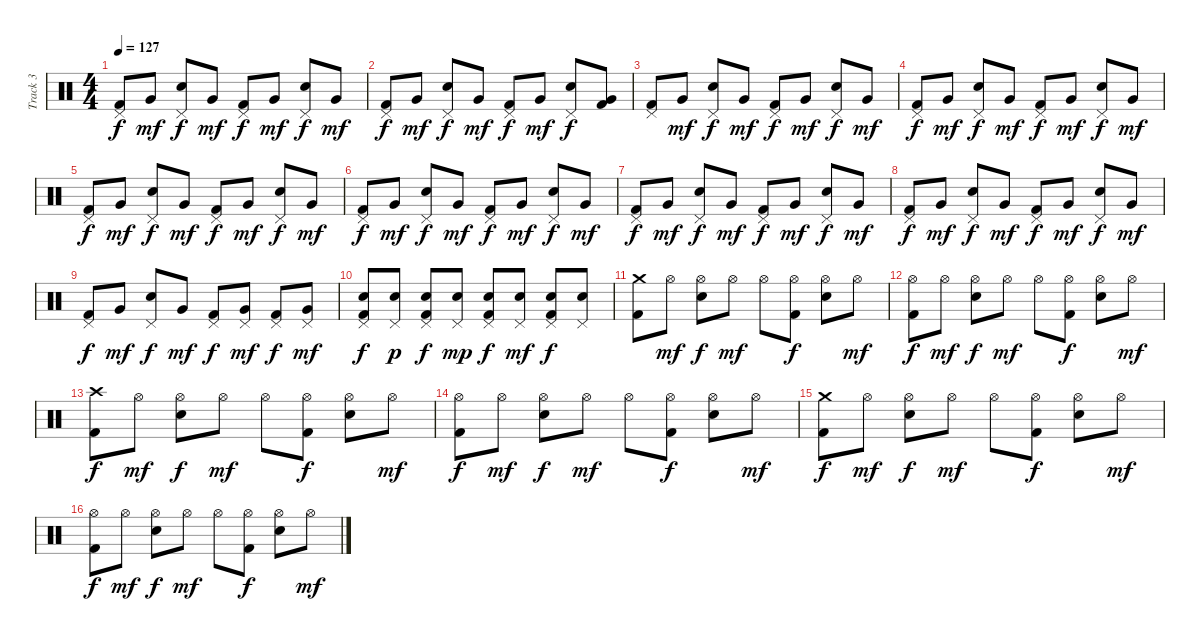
\track ("Track 3" "Track 3") {instrument percussion}
\staff {score}
\articulation defaults
\ts (4 4)
\tempo 127
\clef neutral
\ks c
("Pedal Hi-Hat (hit)" "Kick (hit) 2").8{dy f} "Very Low Tom (hit)".8{dy mf} ("Pedal Hi-Hat (hit)" "Electric Snare (hit)").8{dy f} "Very Low Tom (hit)".8{dy mf} ("Pedal Hi-Hat (hit)" "Kick (hit) 2").8{dy f} "Very Low Tom (hit)".8{dy mf} ("Pedal Hi-Hat (hit)" "Electric Snare (hit)").8{dy f} "Very Low Tom (hit)".8{dy mf} |
("Pedal Hi-Hat (hit)" "Kick (hit) 2").8{dy f} "Very Low Tom (hit)".8{dy mf} ("Pedal Hi-Hat (hit)" "Electric Snare (hit)").8{dy f} "Very Low Tom (hit)".8{dy mf} ("Pedal Hi-Hat (hit)" "Kick (hit) 2").8{dy f} "Very Low Tom (hit)".8{dy mf} ("Pedal Hi-Hat (hit)" "Electric Snare (hit)").8{dy f} ("Very Low Tom (hit)" "Kick (hit) 2").8 |
("Pedal Hi-Hat (hit)" "Kick (hit) 2").8 "Very Low Tom (hit)".8{dy mf} ("Pedal Hi-Hat (hit)" "Electric Snare (hit)").8{dy f} "Very Low Tom (hit)".8{dy mf} ("Pedal Hi-Hat (hit)" "Kick (hit) 2").8{dy f} "Very Low Tom (hit)".8{dy mf} ("Pedal Hi-Hat (hit)" "Electric Snare (hit)").8{dy f} "Very Low Tom (hit)".8{dy mf} |
("Pedal Hi-Hat (hit)" "Kick (hit) 2").8{dy f} "Very Low Tom (hit)".8{dy mf} ("Pedal Hi-Hat (hit)" "Electric Snare (hit)").8{dy f} "Very Low Tom (hit)".8{dy mf} ("Pedal Hi-Hat (hit)" "Kick (hit) 2").8{dy f} "Very Low Tom (hit)".8{dy mf} ("Pedal Hi-Hat (hit)" "Electric Snare (hit)").8{dy f} "Very Low Tom (hit)".8{dy mf} |
("Pedal Hi-Hat (hit)" "Kick (hit) 2").8{dy f} "Very Low Tom (hit)".8{dy mf} ("Pedal Hi-Hat (hit)" "Electric Snare (hit)").8{dy f} "Very Low Tom (hit)".8{dy mf} ("Pedal Hi-Hat (hit)" "Kick (hit) 2").8{dy f} "Very Low Tom (hit)".8{dy mf} ("Pedal Hi-Hat (hit)" "Electric Snare (hit)").8{dy f} "Very Low Tom (hit)".8{dy mf} |
("Pedal Hi-Hat (hit)" "Kick (hit) 2").8{dy f} "Very Low Tom (hit)".8{dy mf} ("Pedal Hi-Hat (hit)" "Electric Snare (hit)").8{dy f} "Very Low Tom (hit)".8{dy mf} ("Pedal Hi-Hat (hit)" "Kick (hit) 2").8{dy f} "Very Low Tom (hit)".8{dy mf} ("Pedal Hi-Hat (hit)" "Electric Snare (hit)").8{dy f} "Very Low Tom (hit)".8{dy mf} |
("Pedal Hi-Hat (hit)" "Kick (hit) 2").8{dy f} "Very Low Tom (hit)".8{dy mf} ("Pedal Hi-Hat (hit)" "Electric Snare (hit)").8{dy f} "Very Low Tom (hit)".8{dy mf} ("Pedal Hi-Hat (hit)" "Kick (hit) 2").8{dy f} "Very Low Tom (hit)".8{dy mf} ("Pedal Hi-Hat (hit)" "Electric Snare (hit)").8{dy f} "Very Low Tom (hit)".8{dy mf} |
("Pedal Hi-Hat (hit)" "Kick (hit) 2").8{dy f} "Very Low Tom (hit)".8{dy mf} ("Pedal Hi-Hat (hit)" "Electric Snare (hit)").8{dy f} "Very Low Tom (hit)".8{dy mf} ("Pedal Hi-Hat (hit)" "Kick (hit) 2").8{dy f} "Very Low Tom (hit)".8{dy mf} ("Pedal Hi-Hat (hit)" "Electric Snare (hit)").8{dy f} "Very Low Tom (hit)".8{dy mf} |
("Pedal Hi-Hat (hit)" "Kick (hit) 2").8{dy f} "Very Low Tom (hit)".8{dy mf} ("Pedal Hi-Hat (hit)" "Electric Snare (hit)").8{dy f} "Very Low Tom (hit)".8{dy mf} ("Pedal Hi-Hat (hit)" "Kick (hit) 2").8{dy f} ("Pedal Hi-Hat (hit)" "Very Low Tom (hit)").8{dy mf} ("Pedal Hi-Hat (hit)" "Kick (hit) 2").8{dy f} ("Pedal Hi-Hat (hit)" "Very Low Tom (hit)").8{dy mf} |
("Pedal Hi-Hat (hit)" "Snare (hit) 2" "Kick (hit) 2").8{dy f} ("Pedal Hi-Hat (hit)" "Snare (hit) 2").8{dy p} ("Pedal Hi-Hat (hit)" "Snare (hit) 2" "Kick (hit) 2").8{dy f} ("Pedal Hi-Hat (hit)" "Snare (hit) 2").8{dy mp} ("Pedal Hi-Hat (hit)" "Snare (hit) 2" "Kick (hit) 2").8{dy f} ("Pedal Hi-Hat (hit)" "Snare (hit) 2").8{dy mf} ("Pedal Hi-Hat (hit)" "Snare (hit) 2" "Kick (hit) 2").8{dy f} ("Pedal Hi-Hat (hit)" "Snare (hit) 2").8 |
("Crash medium (hit)" "Kick (hit) 2").8 "Hi-Hat (open)".8{dy mf} ("Hi-Hat (open)" "Snare (hit) 2").8{dy f} "Hi-Hat (open)".8{dy mf} "Hi-Hat (open)".8 ("Hi-Hat (open)" "Kick (hit) 2").8{dy f} ("Hi-Hat (open)" "Snare (hit) 2").8 "Hi-Hat (open)".8{dy mf} |
("Hi-Hat (open)" "Kick (hit) 2").8{dy f} "Hi-Hat (open)".8{dy mf} ("Hi-Hat (open)" "Snare (hit) 2").8{dy f} "Hi-Hat (open)".8{dy mf} "Hi-Hat (open)".8 ("Hi-Hat (open)" "Kick (hit) 2").8{dy f} ("Hi-Hat (open)" "Snare (hit) 2").8 "Hi-Hat (open)".8{dy mf} |
("Crash high (hit)" "Kick (hit) 2").8{dy f} "Hi-Hat (open)".8{dy mf} ("Hi-Hat (open)" "Snare (hit) 2").8{dy f} "Hi-Hat (open)".8{dy mf} "Hi-Hat (open)".8 ("Hi-Hat (open)" "Kick (hit) 2").8{dy f} ("Hi-Hat (open)" "Snare (hit) 2").8 "Hi-Hat (open)".8{dy mf} |
("Hi-Hat (open)" "Kick (hit) 2").8{dy f} "Hi-Hat (open)".8{dy mf} ("Hi-Hat (open)" "Snare (hit) 2").8{dy f} "Hi-Hat (open)".8{dy mf} "Hi-Hat (open)".8 ("Hi-Hat (open)" "Kick (hit) 2").8{dy f} ("Hi-Hat (open)" "Snare (hit) 2").8 "Hi-Hat (open)".8{dy mf} |
("Crash medium (hit)" "Kick (hit) 2").8{dy f} "Hi-Hat (open)".8{dy mf} ("Hi-Hat (open)" "Snare (hit) 2").8{dy f} "Hi-Hat (open)".8{dy mf} "Hi-Hat (open)".8 ("Hi-Hat (open)" "Kick (hit) 2").8{dy f} ("Hi-Hat (open)" "Snare (hit) 2").8 "Hi-Hat (open)".8{dy mf} |
("Hi-Hat (open)" "Kick (hit) 2").8{dy f} "Hi-Hat (open)".8{dy mf} ("Hi-Hat (open)" "Snare (hit) 2").8{dy f} "Hi-Hat (open)".8{dy mf} "Hi-Hat (open)".8 ("Hi-Hat (open)" "Kick (hit) 2").8{dy f} ("Hi-Hat (open)" "Snare (hit) 2").8 "Hi-Hat (open)".8{dy mf}
